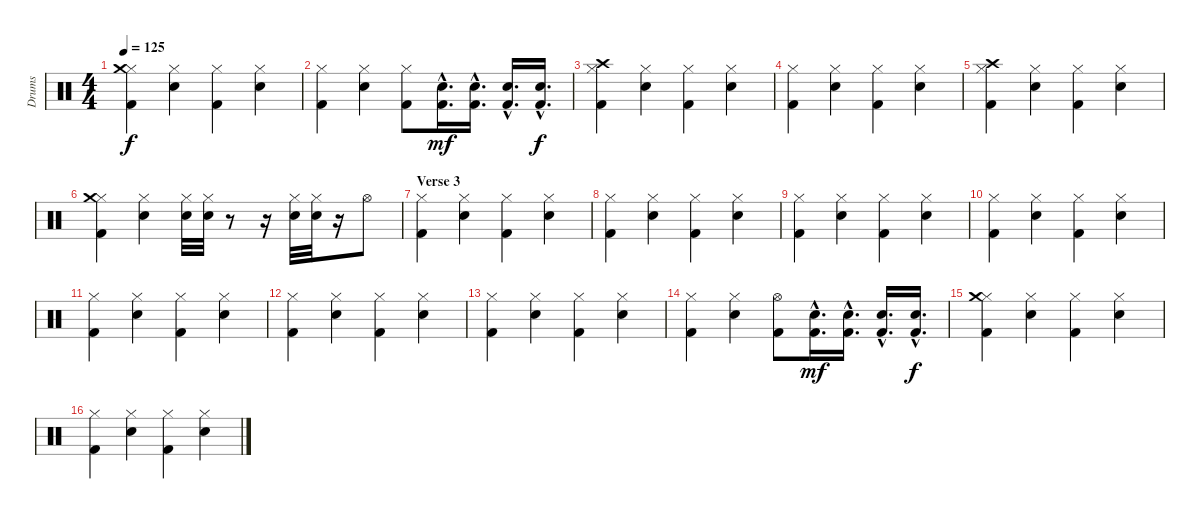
\track ("Drums" "Drums") {instrument percussion}
\staff {score}
\articulation defaults
\ts (4 4)
\tempo 125
\clef neutral
\ks c
("Hi-Hat (closed)" "Crash medium (hit)" "Kick (hit) 2").4{dy f} ("Hi-Hat (closed)" "Electric Snare (hit)").4 ("Hi-Hat (closed)" "Kick (hit) 2").4 ("Hi-Hat (closed)" "Electric Snare (hit)").4 |
("Hi-Hat (closed)" "Kick (hit) 2").4 ("Hi-Hat (closed)" "Electric Snare (hit)").4 ("Hi-Hat (closed)" "Kick (hit) 2").8 ("Electric Snare (hit)"{hac} "Kick (hit) 2"{hac}).16{d dy mf} ("Electric Snare (hit)"{hac} "Kick (hit) 2"{hac}).16{d} ("Electric Snare (hit)"{hac} "Kick (hit) 2"{hac}).16{d} ("Electric Snare (hit)"{hac} "Kick (hit) 2"{hac}).16{d dy f} |
("Hi-Hat (closed)" "Crash high (hit)" "Kick (hit) 2").4 ("Hi-Hat (closed)" "Electric Snare (hit)").4 ("Hi-Hat (closed)" "Kick (hit) 2").4 ("Hi-Hat (closed)" "Electric Snare (hit)").4 |
("Hi-Hat (closed)" "Kick (hit) 2").4 ("Hi-Hat (closed)" "Electric Snare (hit)").4 ("Hi-Hat (closed)" "Kick (hit) 2").4 ("Hi-Hat (closed)" "Electric Snare (hit)").4 |
("Hi-Hat (closed)" "Crash high (hit)" "Kick (hit) 2").4 ("Hi-Hat (closed)" "Electric Snare (hit)").4 ("Hi-Hat (closed)" "Kick (hit) 2").4 ("Hi-Hat (closed)" "Electric Snare (hit)").4 |
("Hi-Hat (closed)" "Crash medium (hit)" "Kick (hit) 2").4 ("Hi-Hat (closed)" "Electric Snare (hit)").4 ("Hi-Hat (closed)" "Electric Snare (hit)").32 ("Hi-Hat (closed)" "Electric Snare (hit)").32 r.8 r.16 ("Hi-Hat (closed)" "Electric Snare (hit)").32 ("Hi-Hat (closed)" "Electric Snare (hit)").32 r.16 "Hi-Hat (open)".8 |
\section ("" "Verse 3")
("Hi-Hat (closed)" "Kick (hit) 2").4 ("Hi-Hat (closed)" "Electric Snare (hit)").4 ("Hi-Hat (closed)" "Kick (hit) 2").4 ("Hi-Hat (closed)" "Electric Snare (hit)").4 |
("Hi-Hat (closed)" "Kick (hit) 2").4 ("Hi-Hat (closed)" "Electric Snare (hit)").4 ("Hi-Hat (closed)" "Kick (hit) 2").4 ("Hi-Hat (closed)" "Electric Snare (hit)").4 |
("Hi-Hat (closed)" "Kick (hit) 2").4 ("Hi-Hat (closed)" "Electric Snare (hit)").4 ("Hi-Hat (closed)" "Kick (hit) 2").4 ("Hi-Hat (closed)" "Electric Snare (hit)").4 |
("Hi-Hat (closed)" "Kick (hit) 2").4 ("Hi-Hat (closed)" "Electric Snare (hit)").4 ("Hi-Hat (closed)" "Kick (hit) 2").4 ("Hi-Hat (closed)" "Electric Snare (hit)").4 |
("Hi-Hat (closed)" "Kick (hit) 2").4 ("Hi-Hat (closed)" "Electric Snare (hit)").4 ("Hi-Hat (closed)" "Kick (hit) 2").4 ("Hi-Hat (closed)" "Electric Snare (hit)").4 |
("Hi-Hat (closed)" "Kick (hit) 2").4 ("Hi-Hat (closed)" "Electric Snare (hit)").4 ("Hi-Hat (closed)" "Kick (hit) 2").4 ("Hi-Hat (closed)" "Electric Snare (hit)").4 |
("Hi-Hat (closed)" "Kick (hit) 2").4 ("Hi-Hat (closed)" "Electric Snare (hit)").4 ("Hi-Hat (closed)" "Kick (hit) 2").4 ("Hi-Hat (closed)" "Electric Snare (hit)").4 |
("Hi-Hat (closed)" "Kick (hit) 2").4 ("Hi-Hat (closed)" "Electric Snare (hit)").4 ("Hi-Hat (open)" "Kick (hit) 2").8 ("Electric Snare (hit)"{hac} "Kick (hit) 2"{hac}).16{d dy mf} ("Electric Snare (hit)"{hac} "Kick (hit) 2"{hac}).16{d} ("Electric Snare (hit)"{hac} "Kick (hit) 2"{hac}).16{d} ("Electric Snare (hit)"{hac} "Kick (hit) 2"{hac}).16{d dy f} |
("Hi-Hat (closed)" "Crash medium (hit)" "Kick (hit) 2").4 ("Hi-Hat (closed)" "Electric Snare (hit)").4 ("Hi-Hat (closed)" "Kick (hit) 2").4 ("Hi-Hat (closed)" "Electric Snare (hit)").4 |
("Hi-Hat (closed)" "Kick (hit) 2").4 ("Hi-Hat (closed)" "Electric Snare (hit)").4 ("Hi-Hat (closed)" "Kick (hit) 2").4 ("Hi-Hat (closed)" "Electric Snare (hit)").4
